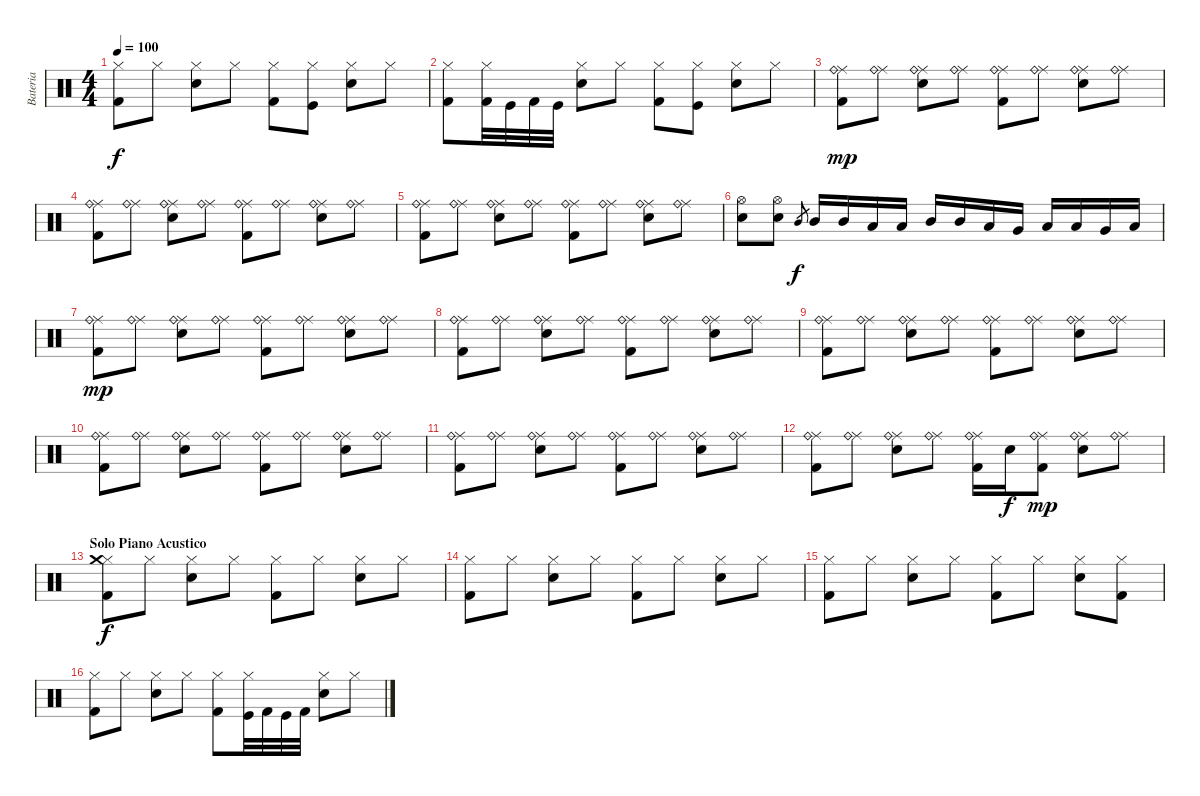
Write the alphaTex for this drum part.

\track ("Bateria" "Bateria") {instrument percussion}
\staff {score}
\articulation defaults
\ts (4 4)
\tempo 100
\clef neutral
\ks c
("Hi-Hat (closed)" "Kick (hit) 2").8{dy f} "Hi-Hat (closed)".8 ("Snare (hit) 2" "Hi-Hat (closed)").8 "Hi-Hat (closed)".8 ("Hi-Hat (closed)" "Kick (hit) 2").8 ("Hi-Hat (closed)" "Kick (hit)").8 ("Snare (hit) 2" "Hi-Hat (closed)").8 "Hi-Hat (closed)".8 |
("Hi-Hat (closed)" "Kick (hit) 2").8 ("Hi-Hat (closed)" "Kick (hit) 2").32 "Kick (hit)".32 "Kick (hit) 2".32 "Kick (hit)".32 ("Snare (hit) 2" "Hi-Hat (closed)").8 "Hi-Hat (closed)".8 ("Hi-Hat (closed)" "Kick (hit) 2").8 ("Hi-Hat (closed)" "Kick (hit)").8 ("Snare (hit) 2" "Hi-Hat (closed)").8 "Hi-Hat (closed)".8 |
("Ride (middle)" "Kick (hit) 2" "Ride (bell)").8{dy mp} ("Ride (middle)" "Ride (bell)").8 ("Ride (middle)" "Snare (hit) 2" "Ride (bell)").8 ("Ride (middle)" "Ride (bell)").8 ("Ride (middle)" "Kick (hit) 2" "Ride (bell)").8 ("Ride (middle)" "Ride (bell)").8 ("Ride (middle)" "Snare (hit) 2" "Ride (bell)").8 ("Ride (middle)" "Ride (bell)").8 |
("Ride (middle)" "Kick (hit) 2" "Ride (bell)").8 ("Ride (middle)" "Ride (bell)").8 ("Ride (middle)" "Snare (hit) 2" "Ride (bell)").8 ("Ride (middle)" "Ride (bell)").8 ("Ride (middle)" "Kick (hit) 2" "Ride (bell)").8 ("Ride (middle)" "Ride (bell)").8 ("Ride (middle)" "Snare (hit) 2" "Ride (bell)").8 ("Ride (middle)" "Ride (bell)").8 |
("Ride (middle)" "Kick (hit) 2" "Ride (bell)").8 ("Ride (middle)" "Ride (bell)").8 ("Ride (middle)" "Snare (hit) 2" "Ride (bell)").8 ("Ride (middle)" "Ride (bell)").8 ("Ride (middle)" "Kick (hit) 2" "Ride (bell)").8 ("Ride (middle)" "Ride (bell)").8 ("Ride (middle)" "Snare (hit) 2" "Ride (bell)").8 ("Ride (middle)" "Ride (bell)").8 |
("Snare (hit) 2" "Hi-Hat (open)").8 ("Snare (hit) 2" "Hi-Hat (open)").8 "Mid Tom (hit)".8{gr dy f} "Mid Tom (hit)".16 "Mid Tom (hit)".16 "Low Tom (hit)".16 "Low Tom (hit)".16 "Mid Tom (hit)".16 "Mid Tom (hit)".16 "Low Tom (hit)".16 "Very Low Tom (hit)".16 "Low Tom (hit)".16 "Low Tom (hit)".16 "Very Low Tom (hit)".16 "Low Floor Tom (hit)".16 |
("Ride (middle)" "Kick (hit) 2" "Ride (bell)").8{dy mp} ("Ride (middle)" "Ride (bell)").8 ("Ride (middle)" "Snare (hit) 2" "Ride (bell)").8 ("Ride (middle)" "Ride (bell)").8 ("Ride (middle)" "Kick (hit) 2" "Ride (bell)").8 ("Ride (middle)" "Ride (bell)").8 ("Ride (middle)" "Snare (hit) 2" "Ride (bell)").8 ("Ride (middle)" "Ride (bell)").8 |
("Ride (middle)" "Kick (hit) 2" "Ride (bell)").8 ("Ride (middle)" "Ride (bell)").8 ("Ride (middle)" "Snare (hit) 2" "Ride (bell)").8 ("Ride (middle)" "Ride (bell)").8 ("Ride (middle)" "Kick (hit) 2" "Ride (bell)").8 ("Ride (middle)" "Ride (bell)").8 ("Ride (middle)" "Snare (hit) 2" "Ride (bell)").8 ("Ride (middle)" "Ride (bell)").8 |
("Ride (middle)" "Kick (hit) 2" "Ride (bell)").8 ("Ride (middle)" "Ride (bell)").8 ("Ride (middle)" "Snare (hit) 2" "Ride (bell)").8 ("Ride (middle)" "Ride (bell)").8 ("Ride (middle)" "Kick (hit) 2" "Ride (bell)").8 ("Ride (middle)" "Ride (bell)").8 ("Ride (middle)" "Snare (hit) 2" "Ride (bell)").8 ("Ride (middle)" "Ride (bell)").8 |
("Ride (middle)" "Kick (hit) 2" "Ride (bell)").8 ("Ride (middle)" "Ride (bell)").8 ("Ride (middle)" "Snare (hit) 2" "Ride (bell)").8 ("Ride (middle)" "Ride (bell)").8 ("Ride (middle)" "Kick (hit) 2" "Ride (bell)").8 ("Ride (middle)" "Ride (bell)").8 ("Ride (middle)" "Snare (hit) 2" "Ride (bell)").8 ("Ride (middle)" "Ride (bell)").8 |
("Ride (middle)" "Kick (hit) 2" "Ride (bell)").8 ("Ride (middle)" "Ride (bell)").8 ("Ride (middle)" "Snare (hit) 2" "Ride (bell)").8 ("Ride (middle)" "Ride (bell)").8 ("Ride (middle)" "Kick (hit) 2" "Ride (bell)").8 ("Ride (middle)" "Ride (bell)").8 ("Ride (middle)" "Snare (hit) 2" "Ride (bell)").8 ("Ride (middle)" "Ride (bell)").8 |
("Ride (middle)" "Kick (hit) 2" "Ride (bell)").8 ("Ride (middle)" "Ride (bell)").8 ("Ride (middle)" "Snare (hit) 2" "Ride (bell)").8 ("Ride (middle)" "Ride (bell)").8 ("Ride (middle)" "Kick (hit) 2" "Ride (bell)").16 "Snare (hit) 2".16{dy f} ("Ride (middle)" "Kick (hit) 2" "Ride (bell)").8{dy mp} ("Ride (middle)" "Snare (hit) 2" "Ride (bell)").8 ("Ride (middle)" "Ride (bell)").8 |
\section ("" "Solo Piano Acustico")
("Hi-Hat (closed)" "Kick (hit) 2" "Crash medium (hit)").8{dy f} "Hi-Hat (closed)".8 ("Snare (hit) 2" "Hi-Hat (closed)").8 "Hi-Hat (closed)".8 ("Hi-Hat (closed)" "Kick (hit) 2").8 "Hi-Hat (closed)".8 ("Snare (hit) 2" "Hi-Hat (closed)").8 "Hi-Hat (closed)".8 |
("Hi-Hat (closed)" "Kick (hit) 2").8 "Hi-Hat (closed)".8 ("Snare (hit) 2" "Hi-Hat (closed)").8 "Hi-Hat (closed)".8 ("Hi-Hat (closed)" "Kick (hit) 2").8 "Hi-Hat (closed)".8 ("Snare (hit) 2" "Hi-Hat (closed)").8 "Hi-Hat (closed)".8 |
("Hi-Hat (closed)" "Kick (hit) 2").8 "Hi-Hat (closed)".8 ("Snare (hit) 2" "Hi-Hat (closed)").8 "Hi-Hat (closed)".8 ("Hi-Hat (closed)" "Kick (hit) 2").8 "Hi-Hat (closed)".8 ("Snare (hit) 2" "Hi-Hat (closed)").8 ("Hi-Hat (closed)" "Kick (hit) 2").8 |
("Hi-Hat (closed)" "Kick (hit) 2").8 "Hi-Hat (closed)".8 ("Snare (hit) 2" "Hi-Hat (closed)").8 "Hi-Hat (closed)".8 ("Hi-Hat (closed)" "Kick (hit) 2").8 ("Hi-Hat (closed)" "Kick (hit)").32 "Kick (hit) 2".32 "Kick (hit)".32 "Kick (hit) 2".32 ("Snare (hit) 2" "Hi-Hat (closed)").8 "Hi-Hat (closed)".8
